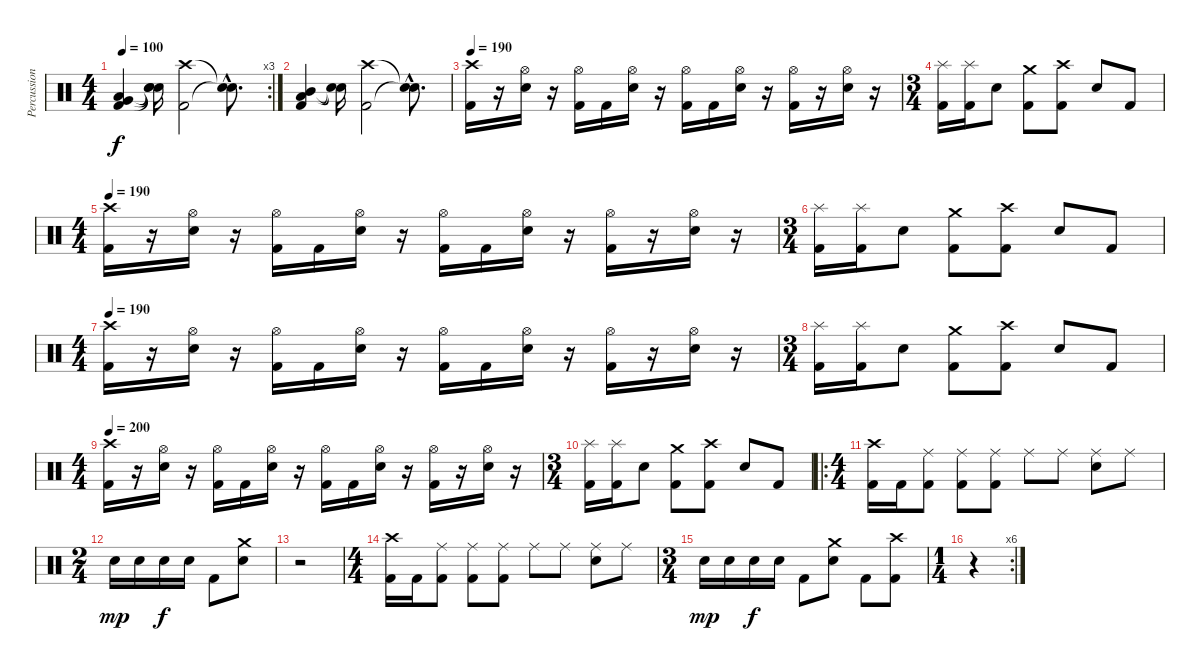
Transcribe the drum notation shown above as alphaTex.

\track ("Percussion" "Percussion") {instrument percussion}
\staff {score}
\articulation defaults
\rc 3
\ts (4 4)
\tempo 100
\clef neutral
\ks c
("Very Low Tom (hit)" "Low Floor Tom (hit)" "Kick (hit) 2").4{dy f} ("Snare (hit)"{t} "Snare (hit)"{t} "Snare (hit)"{t}).16 ("Crash high (hit)" "Kick (hit) 2").2 ("Snare (hit)"{hac t} "Snare (hit)"{hac t}).8{d} |
("Mid Tom (hit)" "Low Tom (hit)" "Kick (hit) 2").4 ("Snare (hit)"{t} "Snare (hit)"{t}).16 ("Crash high (hit)" "Kick (hit) 2").2 ("Snare (hit)"{hac t} "Snare (hit)"{hac t}).8{d} |
\tempo 190
("Crash high (hit)" "Kick (hit) 2").16 r.16 ("Hi-Hat (open)" "Electric Snare (hit)").16 r.16 ("Hi-Hat (open)" "Kick (hit) 2").16 "Kick (hit) 2".16 ("Hi-Hat (open)" "Electric Snare (hit)").16 r.16 ("Hi-Hat (open)" "Kick (hit) 2").16 "Kick (hit) 2".16 ("Hi-Hat (open)" "Electric Snare (hit)").16 r.16 ("Hi-Hat (open)" "Kick (hit) 2").16 r.16 ("Hi-Hat (open)" "Electric Snare (hit)").16 r.16 |
\ts (3 4)
("Splash (hit)" "Kick (hit) 2").16 ("Splash (hit)" "Kick (hit) 2").16 "Electric Snare (hit)".8 ("Crash medium (hit)" "Kick (hit) 2").8 ("Crash high (hit)" "Kick (hit) 2").8 "Electric Snare (hit)".8 "Kick (hit) 2".8 |
\ts (4 4)
\tempo 190
("Crash high (hit)" "Kick (hit) 2").16 r.16 ("Hi-Hat (open)" "Electric Snare (hit)").16 r.16 ("Hi-Hat (open)" "Kick (hit) 2").16 "Kick (hit) 2".16 ("Hi-Hat (open)" "Electric Snare (hit)").16 r.16 ("Hi-Hat (open)" "Kick (hit) 2").16 "Kick (hit) 2".16 ("Hi-Hat (open)" "Electric Snare (hit)").16 r.16 ("Hi-Hat (open)" "Kick (hit) 2").16 r.16 ("Hi-Hat (open)" "Electric Snare (hit)").16 r.16 |
\ts (3 4)
("Splash (hit)" "Kick (hit) 2").16 ("Splash (hit)" "Kick (hit) 2").16 "Electric Snare (hit)".8 ("Crash medium (hit)" "Kick (hit) 2").8 ("Crash high (hit)" "Kick (hit) 2").8 "Electric Snare (hit)".8 "Kick (hit) 2".8 |
\ts (4 4)
\tempo 190
("Crash high (hit)" "Kick (hit) 2").16 r.16 ("Hi-Hat (open)" "Electric Snare (hit)").16 r.16 ("Hi-Hat (open)" "Kick (hit) 2").16 "Kick (hit) 2".16 ("Hi-Hat (open)" "Electric Snare (hit)").16 r.16 ("Hi-Hat (open)" "Kick (hit) 2").16 "Kick (hit) 2".16 ("Hi-Hat (open)" "Electric Snare (hit)").16 r.16 ("Hi-Hat (open)" "Kick (hit) 2").16 r.16 ("Hi-Hat (open)" "Electric Snare (hit)").16 r.16 |
\ts (3 4)
("Splash (hit)" "Kick (hit) 2").16 ("Splash (hit)" "Kick (hit) 2").16 "Electric Snare (hit)".8 ("Crash medium (hit)" "Kick (hit) 2").8 ("Crash high (hit)" "Kick (hit) 2").8 "Electric Snare (hit)".8 "Kick (hit) 2".8 |
\ts (4 4)
\tempo 200
("Crash high (hit)" "Kick (hit) 2").16 r.16 ("Hi-Hat (open)" "Electric Snare (hit)").16 r.16 ("Hi-Hat (open)" "Kick (hit) 2").16 "Kick (hit) 2".16 ("Hi-Hat (open)" "Electric Snare (hit)").16 r.16 ("Hi-Hat (open)" "Kick (hit) 2").16 "Kick (hit) 2".16 ("Hi-Hat (open)" "Electric Snare (hit)").16 r.16 ("Hi-Hat (open)" "Kick (hit) 2").16 r.16 ("Hi-Hat (open)" "Electric Snare (hit)").16 r.16 |
\ts (3 4)
("Splash (hit)" "Kick (hit) 2").16 ("Splash (hit)" "Kick (hit) 2").16 "Electric Snare (hit)".8 ("Crash medium (hit)" "Kick (hit) 2").8 ("Crash high (hit)" "Kick (hit) 2").8 "Electric Snare (hit)".8 "Kick (hit) 2".8 |
\ro
\ts (4 4)
("Crash high (hit)" "Kick (hit) 2").16 "Kick (hit) 2".16 ("Ride (middle)" "Kick (hit) 2").8 ("Ride (middle)" "Kick (hit) 2").8 ("Ride (middle)" "Kick (hit) 2").8 "Ride (middle)".8 "Ride (middle)".8 ("Ride (middle)" "Electric Snare (hit)").8 "Ride (middle)".8 |
\ts (2 4)
"Electric Snare (hit)".16{dy mp} "Electric Snare (hit)".16 "Electric Snare (hit)".16{dy f} "Electric Snare (hit)".16 "Kick (hit) 2".8 ("Crash medium (hit)" "Electric Snare (hit)").8 |
r.2 |
\ts (4 4)
("Crash high (hit)" "Kick (hit) 2").16 "Kick (hit) 2".16 ("Ride (middle)" "Kick (hit) 2").8 ("Ride (middle)" "Kick (hit) 2").8 ("Ride (middle)" "Kick (hit) 2").8 "Ride (middle)".8 "Ride (middle)".8 ("Ride (middle)" "Electric Snare (hit)").8 "Ride (middle)".8 |
\ts (3 4)
"Electric Snare (hit)".16{dy mp} "Electric Snare (hit)".16 "Electric Snare (hit)".16{dy f} "Electric Snare (hit)".16 "Kick (hit) 2".8 ("Crash medium (hit)" "Electric Snare (hit)").8 "Kick (hit) 2".8 ("Crash high (hit)" "Kick (hit) 2").8 |
\rc 6
\ts (1 4)
r.4
